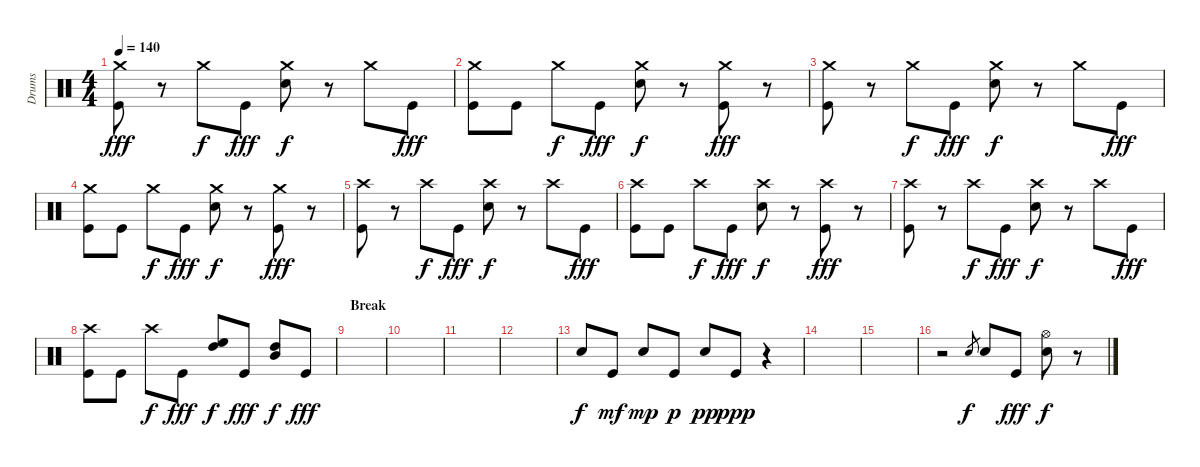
\track ("Drums" "Drums") {instrument percussion}
\staff {score}
\articulation defaults
\ts (4 4)
\tempo 140
\clef neutral
\ks c
("Crash medium (hit)" "Kick (hit)").8{dy fff} r.8 "Crash medium (hit)".8{dy f} "Kick (hit)".8{dy fff} ("Crash medium (hit)" "Electric Snare (hit)").8{dy f} r.8 "Crash medium (hit)".8 "Kick (hit)".8{dy fff} |
("Crash medium (hit)" "Kick (hit)").8 "Kick (hit)".8 "Crash medium (hit)".8{dy f} "Kick (hit)".8{dy fff} ("Crash medium (hit)" "Electric Snare (hit)").8{dy f} r.8 ("Crash medium (hit)" "Kick (hit)").8{dy fff} r.8 |
("Crash medium (hit)" "Kick (hit)").8 r.8 "Crash medium (hit)".8{dy f} "Kick (hit)".8{dy fff} ("Crash medium (hit)" "Electric Snare (hit)").8{dy f} r.8 "Crash medium (hit)".8 "Kick (hit)".8{dy fff} |
("Crash medium (hit)" "Kick (hit)").8 "Kick (hit)".8 "Crash medium (hit)".8{dy f} "Kick (hit)".8{dy fff} ("Crash medium (hit)" "Electric Snare (hit)").8{dy f} r.8 ("Crash medium (hit)" "Kick (hit)").8{dy fff} r.8 |
("Crash high (hit)" "Kick (hit)").8 r.8 "Crash high (hit)".8{dy f} "Kick (hit)".8{dy fff} ("Crash high (hit)" "Electric Snare (hit)").8{dy f} r.8 "Crash high (hit)".8 "Kick (hit)".8{dy fff} |
("Crash high (hit)" "Kick (hit)").8 "Kick (hit)".8 "Crash high (hit)".8{dy f} "Kick (hit)".8{dy fff} ("Crash high (hit)" "Electric Snare (hit)").8{dy f} r.8 ("Crash high (hit)" "Kick (hit)").8{dy fff} r.8 |
("Crash high (hit)" "Kick (hit)").8 r.8 "Crash high (hit)".8{dy f} "Kick (hit)".8{dy fff} ("Crash high (hit)" "Electric Snare (hit)").8{dy f} r.8 "Crash high (hit)".8 "Kick (hit)".8{dy fff} |
("Crash high (hit)" "Kick (hit)").8 "Kick (hit)".8 "Crash high (hit)".8{dy f} "Kick (hit)".8{dy fff} ("High Floor Tom (hit)" "High Tom (hit)").8{bu 240 dy f} "Kick (hit)".8{dy fff} ("High Tom (hit)" "Mid Tom (hit)").8{bu 240 dy f} "Kick (hit)".8{dy fff} |
\section ("" "Break")
|
|
|
|
"Electric Snare (hit)".8{dy f} "Kick (hit)".8{dy mf} "Electric Snare (hit)".8{dy mp} "Kick (hit)".8{dy p} "Electric Snare (hit)".8{dy pp} "Kick (hit)".8{dy ppp} r.4 |
|
|
r.2 "Electric Snare (hit)".8{gr dy f} "Electric Snare (hit)".8 "Kick (hit)".8{dy fff} ("Hi-Hat (open)" "Electric Snare (hit)").8{dy f} r.8
